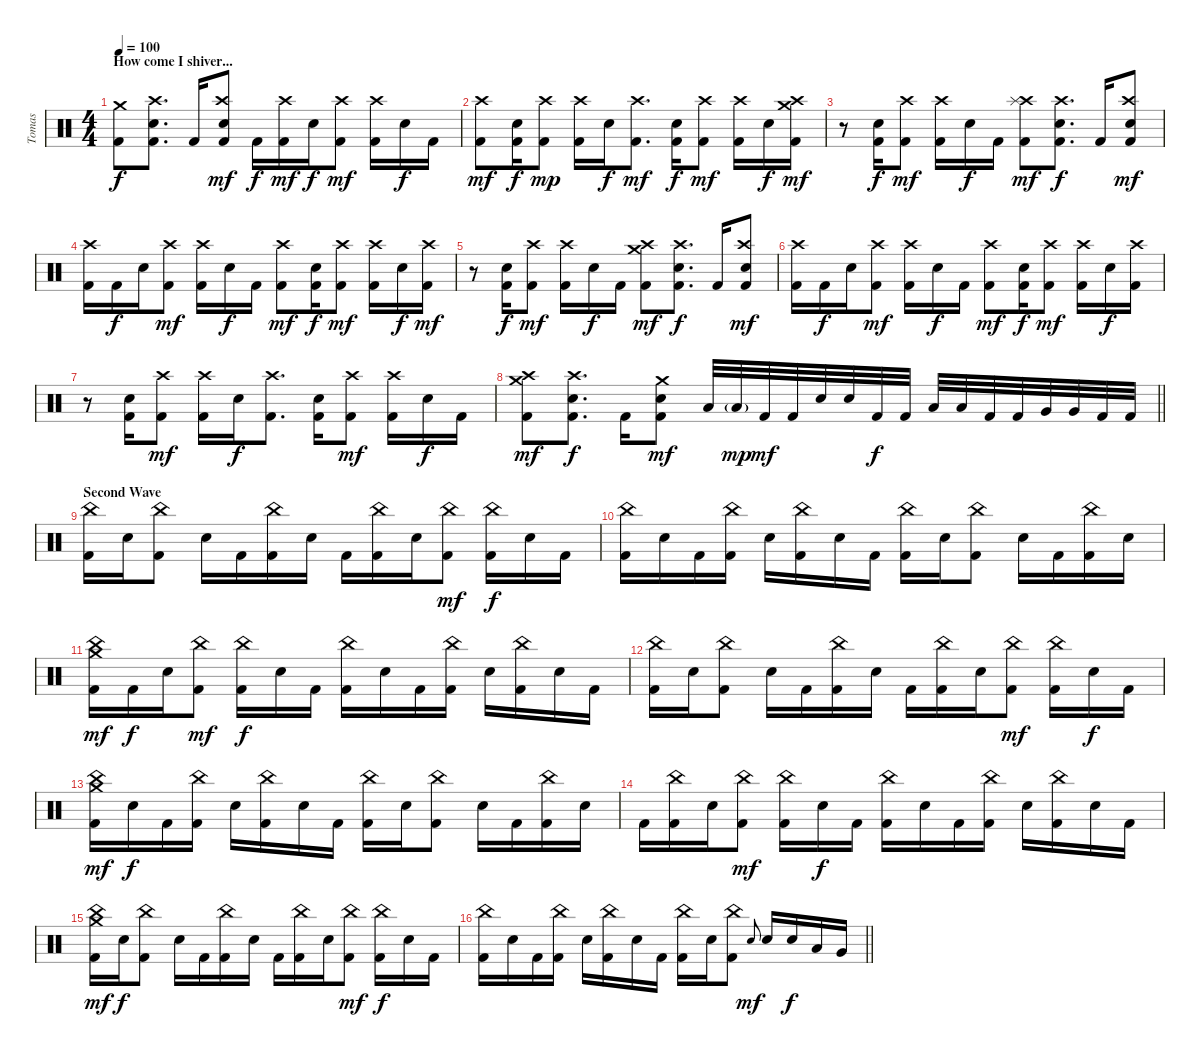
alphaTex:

\track ("Tomas" "Tomas") {instrument percussion}
\staff {score}
\articulation defaults
\ts (4 4)
\section ("" "How come I shiver...")
\tempo 100
\clef neutral
\ks c
("Crash medium (hit)" "Kick (hit) 2").8{dy f} ("Crash high (hit)" "Electric Snare (hit)" "Kick (hit) 2").8{d} "Kick (hit) 2".16 ("Crash high (hit)" "Electric Snare (hit)" "Kick (hit) 2").8{dy mf} "Kick (hit) 2".16{dy f} ("Crash high (hit)" "Kick (hit) 2").16{dy mf} "Electric Snare (hit)".16{dy f} ("Crash high (hit)" "Kick (hit) 2").8{dy mf} ("Crash high (hit)" "Kick (hit) 2").16 "Electric Snare (hit)".16{dy f} "Kick (hit) 2".16 |
("Crash high (hit)" "Kick (hit) 2").8{dy mf} ("Electric Snare (hit)" "Kick (hit) 2").16{dy f} ("Crash high (hit)" "Kick (hit) 2").8{dy mp} ("Crash high (hit)" "Kick (hit) 2").16 "Electric Snare (hit)".16{dy f} ("Crash high (hit)" "Kick (hit) 2").8{d dy mf} ("Electric Snare (hit)" "Kick (hit) 2").16{dy f} ("Crash high (hit)" "Kick (hit) 2").8{dy mf} ("Crash high (hit)" "Kick (hit) 2").16 "Electric Snare (hit)".16{dy f} ("Crash high (hit)" "Crash medium (hit)" "Kick (hit) 2").16{dy mf} |
r.8 ("Electric Snare (hit)" "Kick (hit) 2").16{dy f} ("Crash high (hit)" "Kick (hit) 2").8{dy mf} ("Crash high (hit)" "Kick (hit) 2").16 "Electric Snare (hit)".16{dy f} "Kick (hit) 2".16 ("Crash high (hit)" "Splash (hit)" "Kick (hit) 2").8{dy mf} ("Crash high (hit)" "Electric Snare (hit)" "Kick (hit) 2").8{d dy f} "Kick (hit) 2".16 ("Crash high (hit)" "Electric Snare (hit)" "Kick (hit) 2").8{dy mf} |
("Crash high (hit)" "Kick (hit) 2").16 "Kick (hit) 2".16{dy f} "Electric Snare (hit)".16 ("Crash high (hit)" "Kick (hit) 2").8{dy mf} ("Crash high (hit)" "Kick (hit) 2").16 "Electric Snare (hit)".16{dy f} "Kick (hit) 2".16 ("Crash high (hit)" "Kick (hit) 2").8{dy mf} ("Electric Snare (hit)" "Kick (hit) 2").16{dy f} ("Crash high (hit)" "Kick (hit) 2").8{dy mf} ("Crash high (hit)" "Kick (hit) 2").16 "Electric Snare (hit)".16{dy f} ("Crash high (hit)" "Kick (hit) 2").16{dy mf} |
r.8 ("Electric Snare (hit)" "Kick (hit) 2").16{dy f} ("Crash high (hit)" "Kick (hit) 2").8{dy mf} ("Crash high (hit)" "Kick (hit) 2").16 "Electric Snare (hit)".16{dy f} "Kick (hit) 2".16 ("Crash high (hit)" "Crash medium (hit)" "Kick (hit) 2").8{dy mf} ("Crash high (hit)" "Electric Snare (hit)" "Kick (hit) 2").8{d dy f} "Kick (hit) 2".16 ("Crash high (hit)" "Electric Snare (hit)" "Kick (hit) 2").8{dy mf} |
("Crash high (hit)" "Kick (hit) 2").16 "Kick (hit) 2".16{dy f} "Electric Snare (hit)".16 ("Crash high (hit)" "Kick (hit) 2").8{dy mf} ("Crash high (hit)" "Kick (hit) 2").16 "Electric Snare (hit)".16{dy f} "Kick (hit) 2".16 ("Crash high (hit)" "Kick (hit) 2").8{dy mf} ("Electric Snare (hit)" "Kick (hit) 2").16{dy f} ("Crash high (hit)" "Kick (hit) 2").8{dy mf} ("Crash high (hit)" "Kick (hit) 2").16 "Electric Snare (hit)".16{dy f} ("Crash high (hit)" "Kick (hit) 2").16 |
r.8 ("Electric Snare (hit)" "Kick (hit) 2").16 ("Crash high (hit)" "Kick (hit) 2").8{dy mf} ("Crash high (hit)" "Kick (hit) 2").16 "Electric Snare (hit)".16{dy f} ("Crash high (hit)" "Kick (hit) 2").8{d} ("Electric Snare (hit)" "Kick (hit) 2").16 ("Crash high (hit)" "Kick (hit) 2").8{dy mf} ("Crash high (hit)" "Kick (hit) 2").16 "Electric Snare (hit)".16{dy f} "Kick (hit) 2".16 |
\barLineRight lightlight
("Crash high (hit)" "Crash medium (hit)" "Kick (hit) 2").8{dy mf} ("Crash high (hit)" "Electric Snare (hit)" "Kick (hit) 2").8{d dy f} "Kick (hit) 2".16 ("Crash medium (hit)" "Electric Snare (hit)" "Kick (hit) 2").8{dy mf} "Low Tom (hit)".32 "Low Tom (hit)"{g}.32{dy mp} "Kick (hit) 2".32{dy mf} "Kick (hit) 2".32 "Electric Snare (hit)".32 "Electric Snare (hit)".32 "Kick (hit) 2".32{dy f} "Kick (hit) 2".32 "Low Tom (hit)".32 "Low Tom (hit)".32 "Kick (hit) 2".32 "Kick (hit) 2".32 "Very Low Tom (hit)".32 "Very Low Tom (hit)".32 "Kick (hit) 2".32 "Kick (hit) 2".32 |
\section ("" "Second Wave")
("China (hit)" "Kick (hit) 2").16 "Electric Snare (hit)".16 ("China (hit)" "Kick (hit) 2").8 "Electric Snare (hit)".16 "Kick (hit) 2".16 ("China (hit)" "Kick (hit) 2").16 "Electric Snare (hit)".16 "Kick (hit) 2".16 ("China (hit)" "Kick (hit) 2").16 "Electric Snare (hit)".16 ("China (hit)" "Kick (hit) 2").8{dy mf} ("China (hit)" "Kick (hit) 2").16{dy f} "Electric Snare (hit)".16 "Kick (hit) 2".16 |
("China (hit)" "Kick (hit) 2").16 "Electric Snare (hit)".16 "Kick (hit) 2".16 ("China (hit)" "Kick (hit) 2").16 "Electric Snare (hit)".16 ("China (hit)" "Kick (hit) 2").16 "Electric Snare (hit)".16 "Kick (hit) 2".16 ("China (hit)" "Kick (hit) 2").16 "Electric Snare (hit)".16 ("China (hit)" "Kick (hit) 2").8 "Electric Snare (hit)".16 "Kick (hit) 2".16 ("China (hit)" "Kick (hit) 2").16 "Electric Snare (hit)".16 |
("China (hit)" "Crash medium (hit)" "Kick (hit) 2").16{dy mf} "Kick (hit) 2".16{dy f} "Electric Snare (hit)".16 ("China (hit)" "Kick (hit) 2").8{dy mf} ("China (hit)" "Kick (hit) 2").16{dy f} "Electric Snare (hit)".16 "Kick (hit) 2".16 ("China (hit)" "Kick (hit) 2").16 "Electric Snare (hit)".16 "Kick (hit) 2".16 ("China (hit)" "Kick (hit) 2").16 "Electric Snare (hit)".16 ("China (hit)" "Kick (hit) 2").16 "Electric Snare (hit)".16 "Kick (hit) 2".16 |
("China (hit)" "Kick (hit) 2").16 "Electric Snare (hit)".16 ("China (hit)" "Kick (hit) 2").8 "Electric Snare (hit)".16 "Kick (hit) 2".16 ("China (hit)" "Kick (hit) 2").16 "Electric Snare (hit)".16 "Kick (hit) 2".16 ("China (hit)" "Kick (hit) 2").16 "Electric Snare (hit)".16 ("China (hit)" "Kick (hit) 2").8{dy mf} ("China (hit)" "Kick (hit) 2").16 "Electric Snare (hit)".16{dy f} "Kick (hit) 2".16 |
("China (hit)" "Crash medium (hit)" "Kick (hit) 2").16{dy mf} "Electric Snare (hit)".16{dy f} "Kick (hit) 2".16 ("China (hit)" "Kick (hit) 2").16 "Electric Snare (hit)".16 ("China (hit)" "Kick (hit) 2").16 "Electric Snare (hit)".16 "Kick (hit) 2".16 ("China (hit)" "Kick (hit) 2").16 "Electric Snare (hit)".16 ("China (hit)" "Kick (hit) 2").8 "Electric Snare (hit)".16 "Kick (hit) 2".16 ("China (hit)" "Kick (hit) 2").16 "Electric Snare (hit)".16 |
"Kick (hit) 2".16 ("China (hit)" "Kick (hit) 2").16 "Electric Snare (hit)".16 ("China (hit)" "Kick (hit) 2").8{dy mf} ("China (hit)" "Kick (hit) 2").16 "Electric Snare (hit)".16{dy f} "Kick (hit) 2".16 ("China (hit)" "Kick (hit) 2").16 "Electric Snare (hit)".16 "Kick (hit) 2".16 ("China (hit)" "Kick (hit) 2").16 "Electric Snare (hit)".16 ("China (hit)" "Kick (hit) 2").16 "Electric Snare (hit)".16 "Kick (hit) 2".16 |
("China (hit)" "Crash medium (hit)" "Kick (hit) 2").16{dy mf} "Electric Snare (hit)".16{dy f} ("China (hit)" "Kick (hit) 2").8 "Electric Snare (hit)".16 "Kick (hit) 2".16 ("China (hit)" "Kick (hit) 2").16 "Electric Snare (hit)".16 "Kick (hit) 2".16 ("China (hit)" "Kick (hit) 2").16 "Electric Snare (hit)".16 ("China (hit)" "Kick (hit) 2").8{dy mf} ("China (hit)" "Kick (hit) 2").16{dy f} "Electric Snare (hit)".16 "Kick (hit) 2".16 |
\barLineRight lightlight
("China (hit)" "Kick (hit) 2").16 "Electric Snare (hit)".16 "Kick (hit) 2".16 ("China (hit)" "Kick (hit) 2").16 "Electric Snare (hit)".16 ("China (hit)" "Kick (hit) 2").16 "Electric Snare (hit)".16 "Kick (hit) 2".16 ("China (hit)" "Kick (hit) 2").16 "Electric Snare (hit)".16 ("China (hit)" "Kick (hit) 2").8 "Electric Snare (hit)".8{gr onbeat dy mf} "Electric Snare (hit)".16 "Electric Snare (hit)".16{dy f} "Low Tom (hit)".16 "Very Low Tom (hit)".16
